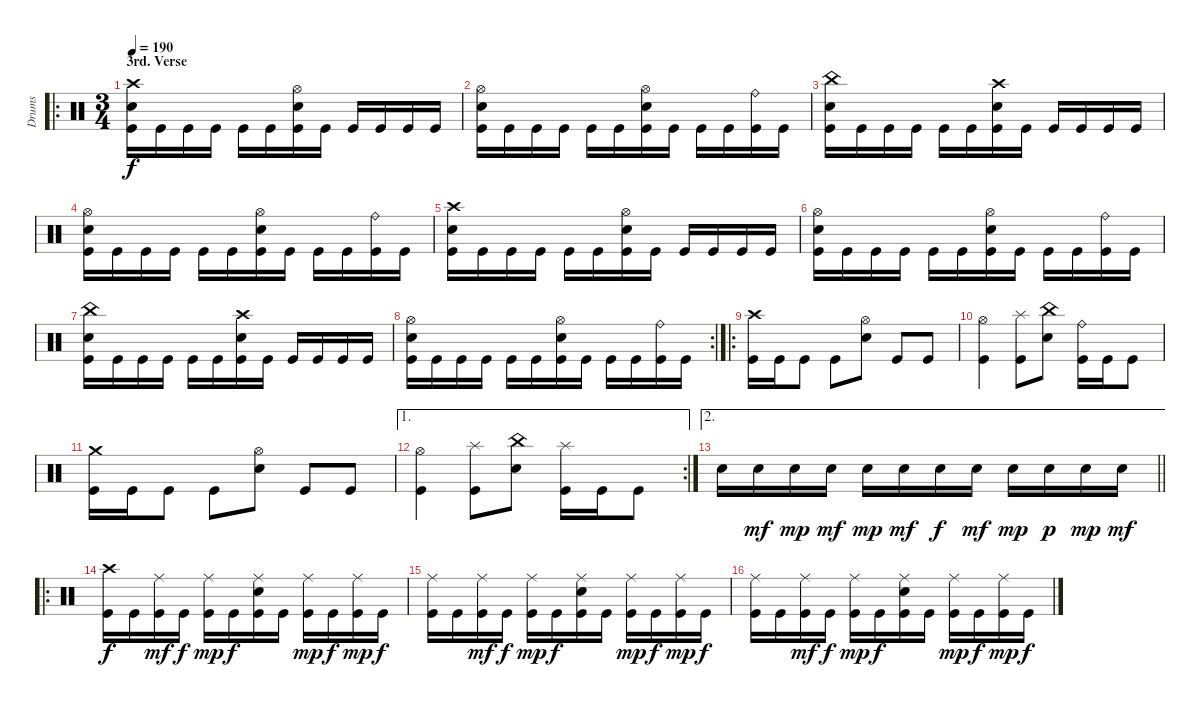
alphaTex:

\track ("Drums" "Drums") {instrument percussion}
\staff {score}
\articulation defaults
\ro
\ts (3 4)
\section ("" "3rd. Verse")
\tempo 190
\clef neutral
\ks c
("Crash high (hit)" "Electric Snare (hit)" "Kick (hit)").16{dy f} "Kick (hit)".16 "Kick (hit)".16 "Kick (hit)".16 "Kick (hit)".16 "Kick (hit)".16 ("Hi-Hat (open)" "Electric Snare (hit)" "Kick (hit)").16 "Kick (hit)".16 "Kick (hit)".16 "Kick (hit)".16 "Kick (hit)".16 "Kick (hit)".16 |
("Hi-Hat (open)" "Electric Snare (hit)" "Kick (hit)").16 "Kick (hit)".16 "Kick (hit)".16 "Kick (hit)".16 "Kick (hit)".16 "Kick (hit)".16 ("Hi-Hat (open)" "Electric Snare (hit)" "Kick (hit)").16 "Kick (hit)".16 "Kick (hit)".16 "Kick (hit)".16 ("Ride (bell)" "Kick (hit)").16 "Kick (hit)".16 |
("China (hit)" "Electric Snare (hit)" "Kick (hit)").16 "Kick (hit)".16 "Kick (hit)".16 "Kick (hit)".16 "Kick (hit)".16 "Kick (hit)".16 ("Crash high (hit)" "Electric Snare (hit)" "Kick (hit)").16 "Kick (hit)".16 "Kick (hit)".16 "Kick (hit)".16 "Kick (hit)".16 "Kick (hit)".16 |
("Hi-Hat (open)" "Electric Snare (hit)" "Kick (hit)").16 "Kick (hit)".16 "Kick (hit)".16 "Kick (hit)".16 "Kick (hit)".16 "Kick (hit)".16 ("Hi-Hat (open)" "Electric Snare (hit)" "Kick (hit)").16 "Kick (hit)".16 "Kick (hit)".16 "Kick (hit)".16 ("Ride (bell)" "Kick (hit)").16 "Kick (hit)".16 |
("Crash high (hit)" "Electric Snare (hit)" "Kick (hit)").16 "Kick (hit)".16 "Kick (hit)".16 "Kick (hit)".16 "Kick (hit)".16 "Kick (hit)".16 ("Hi-Hat (open)" "Electric Snare (hit)" "Kick (hit)").16 "Kick (hit)".16 "Kick (hit)".16 "Kick (hit)".16 "Kick (hit)".16 "Kick (hit)".16 |
("Hi-Hat (open)" "Electric Snare (hit)" "Kick (hit)").16 "Kick (hit)".16 "Kick (hit)".16 "Kick (hit)".16 "Kick (hit)".16 "Kick (hit)".16 ("Hi-Hat (open)" "Electric Snare (hit)" "Kick (hit)").16 "Kick (hit)".16 "Kick (hit)".16 "Kick (hit)".16 ("Ride (bell)" "Kick (hit)").16 "Kick (hit)".16 |
("China (hit)" "Electric Snare (hit)" "Kick (hit)").16 "Kick (hit)".16 "Kick (hit)".16 "Kick (hit)".16 "Kick (hit)".16 "Kick (hit)".16 ("Crash high (hit)" "Electric Snare (hit)" "Kick (hit)").16 "Kick (hit)".16 "Kick (hit)".16 "Kick (hit)".16 "Kick (hit)".16 "Kick (hit)".16 |
\rc 2
("Hi-Hat (open)" "Electric Snare (hit)" "Kick (hit)").16 "Kick (hit)".16 "Kick (hit)".16 "Kick (hit)".16 "Kick (hit)".16 "Kick (hit)".16 ("Hi-Hat (open)" "Electric Snare (hit)" "Kick (hit)").16 "Kick (hit)".16 "Kick (hit)".16 "Kick (hit)".16 ("Ride (bell)" "Kick (hit)").16 "Kick (hit)".16 |
\ro
("Crash high (hit)" "Kick (hit)").16 "Kick (hit)".16 "Kick (hit)".8 "Kick (hit)".8 ("Hi-Hat (open)" "Electric Snare (hit)").8 "Kick (hit)".8 "Kick (hit)".8 |
("Hi-Hat (open)" "Kick (hit)").4 ("Splash (hit)" "Kick (hit)").8 ("China (hit)" "Electric Snare (hit)").8 ("Ride (bell)" "Kick (hit)").16 "Kick (hit)".16 "Kick (hit)".8 |
("Crash medium (hit)" "Kick (hit)").16 "Kick (hit)".16 "Kick (hit)".8 "Kick (hit)".8 ("Hi-Hat (open)" "Electric Snare (hit)").8 "Kick (hit)".8 "Kick (hit)".8 |
\ae 1
\rc 2
("Hi-Hat (open)" "Kick (hit)").4 ("Splash (hit)" "Kick (hit)").8 ("China (hit)" "Electric Snare (hit)").8 ("Splash (hit)" "Kick (hit)").16 "Kick (hit)".16 "Kick (hit)".8 |
\ae 2
\barLineRight lightlight "Electric Snare (hit)".16 "Snare (hit) 2".16{dy mf} "Snare (hit) 2".16{dy mp} "Snare (hit) 2".16{dy mf} "Snare (hit) 2".16{dy mp} "Snare (hit) 2".16{dy mf} "Electric Snare (hit)".16{dy f} "Snare (hit) 2".16{dy mf} "Snare (hit) 2".16{dy mp} "Snare (hit) 2".16{dy p} "Snare (hit) 2".16{dy mp} "Snare (hit) 2".16{dy mf}
|
\ro
("Crash high (hit)" "Kick (hit)").16{dy f} "Kick (hit)".16 ("Ride (middle)" "Kick (hit)").16{dy mf} "Kick (hit)".16{dy f} ("Ride (middle)" "Kick (hit)").16{dy mp} "Kick (hit)".16{dy f} ("Ride (middle)" "Electric Snare (hit)" "Kick (hit)").16 "Kick (hit)".16 ("Ride (middle)" "Kick (hit)").16{dy mp} "Kick (hit)".16{dy f} ("Ride (middle)" "Kick (hit)").16{dy mp} "Kick (hit)".16{dy f} |
("Ride (middle)" "Kick (hit)").16 "Kick (hit)".16 ("Ride (middle)" "Kick (hit)").16{dy mf} "Kick (hit)".16{dy f} ("Ride (middle)" "Kick (hit)").16{dy mp} "Kick (hit)".16{dy f} ("Ride (middle)" "Electric Snare (hit)" "Kick (hit)").16 "Kick (hit)".16 ("Ride (middle)" "Kick (hit)").16{dy mp} "Kick (hit)".16{dy f} ("Ride (middle)" "Kick (hit)").16{dy mp} "Kick (hit)".16{dy f} |
("Ride (middle)" "Kick (hit)").16 "Kick (hit)".16 ("Ride (middle)" "Kick (hit)").16{dy mf} "Kick (hit)".16{dy f} ("Ride (middle)" "Kick (hit)").16{dy mp} "Kick (hit)".16{dy f} ("Ride (middle)" "Electric Snare (hit)" "Kick (hit)").16 "Kick (hit)".16 ("Ride (middle)" "Kick (hit)").16{dy mp} "Kick (hit)".16{dy f} ("Ride (middle)" "Kick (hit)").16{dy mp} "Kick (hit)".16{dy f}
